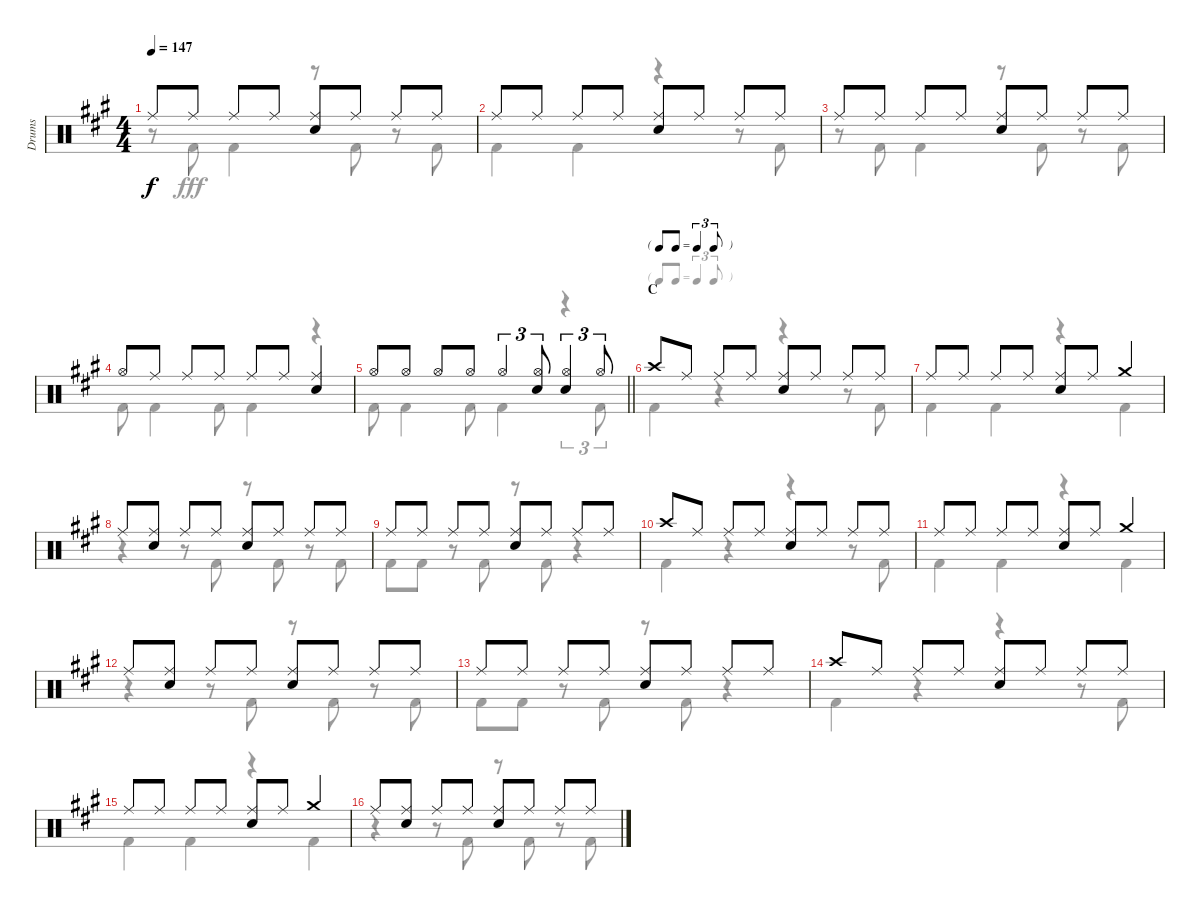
\track ("Drums" "Drums") {instrument percussion}
\staff {score}
\articulation defaults
\voice
\ts (4 4)
\tempo 147
\clef neutral
\ks a "Ride (middle)".8{dy f} "Ride (middle)".8 "Ride (middle)".8 "Ride (middle)".8
("Ride (middle)" "Snare (hit) 2").8 "Ride (middle)".8 "Ride (middle)".8 "Ride (middle)".8 |
"Ride (middle)".8 "Ride (middle)".8 "Ride (middle)".8 "Ride (middle)".8 ("Ride (middle)" "Snare (hit) 2").8 "Ride (middle)".8 "Ride (middle)".8 "Ride (middle)".8 |
"Ride (middle)".8 "Ride (middle)".8 "Ride (middle)".8 "Ride (middle)".8 ("Ride (middle)" "Snare (hit) 2").8 "Ride (middle)".8 "Ride (middle)".8 "Ride (middle)".8 |
"Hi-Hat (open)".8 "Ride (middle)".8 "Ride (middle)".8 "Ride (middle)".8 "Ride (middle)".8 "Ride (middle)".8 ("Ride (middle)" "Snare (hit) 2").4 |
\barLineRight lightlight "Hi-Hat (open)".8 "Hi-Hat (open)".8 "Hi-Hat (open)".8 "Hi-Hat (open)".8 "Hi-Hat (open)".4{tu (3 2)}
("Hi-Hat (open)" "Snare (hit) 2").8{tu (3 2)} ("Hi-Hat (open)" "Snare (hit) 2").4{tu (3 2)} "Hi-Hat (open)".8{tu (3 2)} |
\tf triplet8th
\section ("" "C")
"Crash high (hit)".8 "Ride (middle)".8 "Ride (middle)".8 "Ride (middle)".8 ("Ride (middle)" "Snare (hit) 2").8 "Ride (middle)".8 "Ride (middle)".8 "Ride (middle)".8 |
"Ride (middle)".8 "Ride (middle)".8 "Ride (middle)".8 "Ride (middle)".8 ("Ride (middle)" "Snare (hit) 2").8 "Ride (middle)".8 "Crash medium (hit)".4 |
"Ride (middle)".8 ("Ride (middle)" "Snare (hit) 2").8 "Ride (middle)".8 "Ride (middle)".8 ("Ride (middle)" "Snare (hit) 2").8 "Ride (middle)".8 "Ride (middle)".8 "Ride (middle)".8 |
"Ride (middle)".8 "Ride (middle)".8 "Ride (middle)".8 "Ride (middle)".8 ("Ride (middle)" "Snare (hit) 2").8 "Ride (middle)".8 "Ride (middle)".8 "Ride (middle)".8 |
"Crash high (hit)".8 "Ride (middle)".8 "Ride (middle)".8 "Ride (middle)".8 ("Ride (middle)" "Snare (hit) 2").8 "Ride (middle)".8 "Ride (middle)".8 "Ride (middle)".8 |
"Ride (middle)".8 "Ride (middle)".8 "Ride (middle)".8 "Ride (middle)".8 ("Ride (middle)" "Snare (hit) 2").8 "Ride (middle)".8 "Crash medium (hit)".4 |
"Ride (middle)".8 ("Ride (middle)" "Snare (hit) 2").8 "Ride (middle)".8 "Ride (middle)".8 ("Ride (middle)" "Snare (hit) 2").8 "Ride (middle)".8 "Ride (middle)".8 "Ride (middle)".8 |
"Ride (middle)".8 "Ride (middle)".8 "Ride (middle)".8 "Ride (middle)".8 ("Ride (middle)" "Snare (hit) 2").8 "Ride (middle)".8 "Ride (middle)".8 "Ride (middle)".8 |
"Crash high (hit)".8 "Ride (middle)".8 "Ride (middle)".8 "Ride (middle)".8 ("Ride (middle)" "Snare (hit) 2").8 "Ride (middle)".8 "Ride (middle)".8 "Ride (middle)".8 |
"Ride (middle)".8 "Ride (middle)".8 "Ride (middle)".8 "Ride (middle)".8 ("Ride (middle)" "Snare (hit) 2").8 "Ride (middle)".8 "Crash medium (hit)".4 |
"Ride (middle)".8 ("Ride (middle)" "Snare (hit) 2").8 "Ride (middle)".8 "Ride (middle)".8 ("Ride (middle)" "Snare (hit) 2").8 "Ride (middle)".8 "Ride (middle)".8 "Ride (middle)".8
\voice
\clef neutral
\ottava regular
\simile none
\ks a
r.8{dy fff} "Kick (hit) 2".8 "Kick (hit) 2".4 r.8 "Kick (hit) 2".8 r.8 "Kick (hit) 2".8 |
"Kick (hit) 2".4 "Kick (hit) 2".4 r.4 r.8 "Kick (hit) 2".8 |
r.8 "Kick (hit) 2".8 "Kick (hit) 2".4 r.8 "Kick (hit) 2".8 r.8 "Kick (hit) 2".8 |
"Kick (hit) 2".8 "Kick (hit) 2".4 "Kick (hit) 2".8 "Kick (hit) 2".4 r.4 |
\barLineRight lightlight "Kick (hit) 2".8 "Kick (hit) 2".4 "Kick (hit) 2".8 "Kick (hit) 2".4
r.4{tu (3 2)} "Kick (hit) 2".8{tu (3 2)} |
"Kick (hit) 2".4 r.4 r.4 r.8 "Kick (hit) 2".8 |
"Kick (hit) 2".4 "Kick (hit) 2".4 r.4 "Kick (hit) 2".4 |
r.4 r.8 "Kick (hit) 2".8 r.8 "Kick (hit) 2".8 r.8 "Kick (hit) 2".8 |
"Kick (hit) 2".8 "Kick (hit) 2".8 r.8 "Kick (hit) 2".8 r.8 "Kick (hit) 2".8 r.4 |
"Kick (hit) 2".4 r.4 r.4 r.8 "Kick (hit) 2".8 |
"Kick (hit) 2".4 "Kick (hit) 2".4 r.4 "Kick (hit) 2".4 |
r.4 r.8 "Kick (hit) 2".8 r.8 "Kick (hit) 2".8 r.8 "Kick (hit) 2".8 |
"Kick (hit) 2".8 "Kick (hit) 2".8 r.8 "Kick (hit) 2".8 r.8 "Kick (hit) 2".8 r.4 |
"Kick (hit) 2".4 r.4 r.4 r.8 "Kick (hit) 2".8 |
"Kick (hit) 2".4 "Kick (hit) 2".4 r.4 "Kick (hit) 2".4 |
r.4 r.8 "Kick (hit) 2".8 r.8 "Kick (hit) 2".8 r.8 "Kick (hit) 2".8
